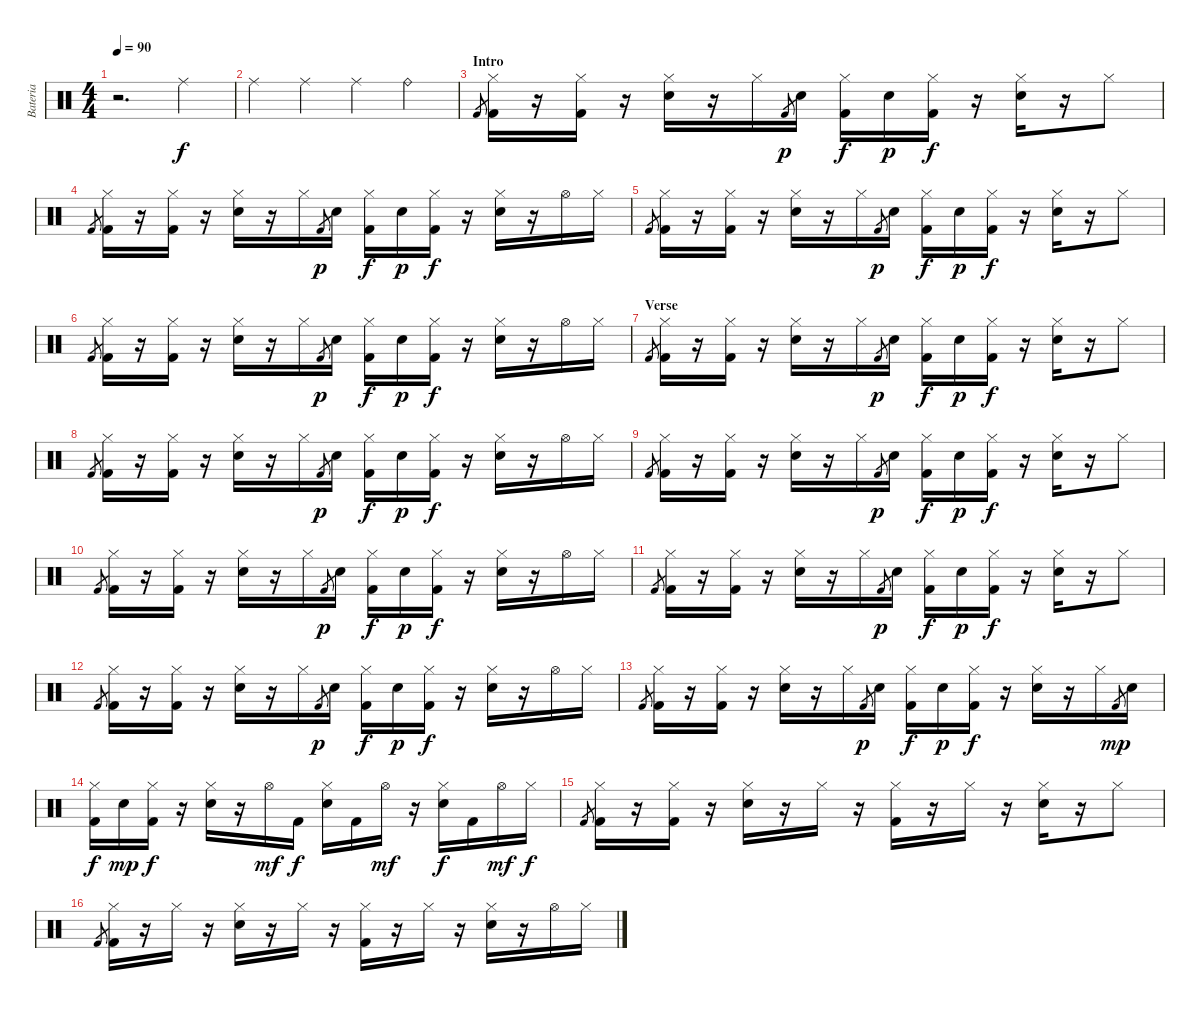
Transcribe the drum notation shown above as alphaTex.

\track ("Bateria" "Bateria") {instrument percussion}
\staff {score}
\articulation defaults
\ts (4 4)
\tempo 90
\clef neutral
\ks c
r.2{d dy f} "Ride (middle)".4 |
"Ride (middle)".4 "Ride (middle)".4 "Ride (middle)".4 "Ride (bell)".4 |
\section ("" "Intro")
"Kick (hit) 2".8{gr} ("Hi-Hat (closed)" "Kick (hit) 2").16 r.16 ("Hi-Hat (closed)" "Kick (hit) 2").16 r.16 ("Hi-Hat (closed)" "Electric Snare (hit)").16 r.16 "Hi-Hat (closed)".16 "Kick (hit) 2".8{gr dy p} "Electric Snare (hit)".16 ("Hi-Hat (closed)" "Kick (hit) 2").16{dy f} "Electric Snare (hit)".16{dy p} ("Hi-Hat (closed)" "Kick (hit) 2").16{dy f} r.16 ("Hi-Hat (closed)" "Electric Snare (hit)").16 r.16 "Hi-Hat (closed)".8 |
"Kick (hit) 2".8{gr} ("Hi-Hat (closed)" "Kick (hit) 2").16 r.16 ("Hi-Hat (closed)" "Kick (hit) 2").16 r.16 ("Hi-Hat (closed)" "Electric Snare (hit)").16 r.16 "Hi-Hat (closed)".16 "Kick (hit) 2".8{gr dy p} "Electric Snare (hit)".16 ("Hi-Hat (closed)" "Kick (hit) 2").16{dy f} "Electric Snare (hit)".16{dy p} ("Hi-Hat (closed)" "Kick (hit) 2").16{dy f} r.16 ("Hi-Hat (closed)" "Electric Snare (hit)").16 r.16 "Hi-Hat (open)".16 "Hi-Hat (closed)".16 |
"Kick (hit) 2".8{gr} ("Hi-Hat (closed)" "Kick (hit) 2").16 r.16 ("Hi-Hat (closed)" "Kick (hit) 2").16 r.16 ("Hi-Hat (closed)" "Electric Snare (hit)").16 r.16 "Hi-Hat (closed)".16 "Kick (hit) 2".8{gr dy p} "Electric Snare (hit)".16 ("Hi-Hat (closed)" "Kick (hit) 2").16{dy f} "Electric Snare (hit)".16{dy p} ("Hi-Hat (closed)" "Kick (hit) 2").16{dy f} r.16 ("Hi-Hat (closed)" "Electric Snare (hit)").16 r.16 "Hi-Hat (closed)".8 |
"Kick (hit) 2".8{gr} ("Hi-Hat (closed)" "Kick (hit) 2").16 r.16 ("Hi-Hat (closed)" "Kick (hit) 2").16 r.16 ("Hi-Hat (closed)" "Electric Snare (hit)").16 r.16 "Hi-Hat (closed)".16 "Kick (hit) 2".8{gr dy p} "Electric Snare (hit)".16 ("Hi-Hat (closed)" "Kick (hit) 2").16{dy f} "Electric Snare (hit)".16{dy p} ("Hi-Hat (closed)" "Kick (hit) 2").16{dy f} r.16 ("Hi-Hat (closed)" "Electric Snare (hit)").16 r.16 "Hi-Hat (open)".16 "Hi-Hat (closed)".16 |
\section ("" "Verse")
"Kick (hit) 2".8{gr} ("Hi-Hat (closed)" "Kick (hit) 2").16 r.16 ("Hi-Hat (closed)" "Kick (hit) 2").16 r.16 ("Hi-Hat (closed)" "Electric Snare (hit)").16 r.16 "Hi-Hat (closed)".16 "Kick (hit) 2".8{gr dy p} "Electric Snare (hit)".16 ("Hi-Hat (closed)" "Kick (hit) 2").16{dy f} "Electric Snare (hit)".16{dy p} ("Hi-Hat (closed)" "Kick (hit) 2").16{dy f} r.16 ("Hi-Hat (closed)" "Electric Snare (hit)").16 r.16 "Hi-Hat (closed)".8 |
"Kick (hit) 2".8{gr} ("Hi-Hat (closed)" "Kick (hit) 2").16 r.16 ("Hi-Hat (closed)" "Kick (hit) 2").16 r.16 ("Hi-Hat (closed)" "Electric Snare (hit)").16 r.16 "Hi-Hat (closed)".16 "Kick (hit) 2".8{gr dy p} "Electric Snare (hit)".16 ("Hi-Hat (closed)" "Kick (hit) 2").16{dy f} "Electric Snare (hit)".16{dy p} ("Hi-Hat (closed)" "Kick (hit) 2").16{dy f} r.16 ("Hi-Hat (closed)" "Electric Snare (hit)").16 r.16 "Hi-Hat (open)".16 "Hi-Hat (closed)".16 |
"Kick (hit) 2".8{gr} ("Hi-Hat (closed)" "Kick (hit) 2").16 r.16 ("Hi-Hat (closed)" "Kick (hit) 2").16 r.16 ("Hi-Hat (closed)" "Electric Snare (hit)").16 r.16 "Hi-Hat (closed)".16 "Kick (hit) 2".8{gr dy p} "Electric Snare (hit)".16 ("Hi-Hat (closed)" "Kick (hit) 2").16{dy f} "Electric Snare (hit)".16{dy p} ("Hi-Hat (closed)" "Kick (hit) 2").16{dy f} r.16 ("Hi-Hat (closed)" "Electric Snare (hit)").16 r.16 "Hi-Hat (closed)".8 |
"Kick (hit) 2".8{gr} ("Hi-Hat (closed)" "Kick (hit) 2").16 r.16 ("Hi-Hat (closed)" "Kick (hit) 2").16 r.16 ("Hi-Hat (closed)" "Electric Snare (hit)").16 r.16 "Hi-Hat (closed)".16 "Kick (hit) 2".8{gr dy p} "Electric Snare (hit)".16 ("Hi-Hat (closed)" "Kick (hit) 2").16{dy f} "Electric Snare (hit)".16{dy p} ("Hi-Hat (closed)" "Kick (hit) 2").16{dy f} r.16 ("Hi-Hat (closed)" "Electric Snare (hit)").16 r.16 "Hi-Hat (open)".16 "Hi-Hat (closed)".16 |
"Kick (hit) 2".8{gr} ("Hi-Hat (closed)" "Kick (hit) 2").16 r.16 ("Hi-Hat (closed)" "Kick (hit) 2").16 r.16 ("Hi-Hat (closed)" "Electric Snare (hit)").16 r.16 "Hi-Hat (closed)".16 "Kick (hit) 2".8{gr dy p} "Electric Snare (hit)".16 ("Hi-Hat (closed)" "Kick (hit) 2").16{dy f} "Electric Snare (hit)".16{dy p} ("Hi-Hat (closed)" "Kick (hit) 2").16{dy f} r.16 ("Hi-Hat (closed)" "Electric Snare (hit)").16 r.16 "Hi-Hat (closed)".8 |
"Kick (hit) 2".8{gr} ("Hi-Hat (closed)" "Kick (hit) 2").16 r.16 ("Hi-Hat (closed)" "Kick (hit) 2").16 r.16 ("Hi-Hat (closed)" "Electric Snare (hit)").16 r.16 "Hi-Hat (closed)".16 "Kick (hit) 2".8{gr dy p} "Electric Snare (hit)".16 ("Hi-Hat (closed)" "Kick (hit) 2").16{dy f} "Electric Snare (hit)".16{dy p} ("Hi-Hat (closed)" "Kick (hit) 2").16{dy f} r.16 ("Hi-Hat (closed)" "Electric Snare (hit)").16 r.16 "Hi-Hat (open)".16 "Hi-Hat (closed)".16 |
"Kick (hit) 2".8{gr} ("Hi-Hat (closed)" "Kick (hit) 2").16 r.16 ("Hi-Hat (closed)" "Kick (hit) 2").16 r.16 ("Hi-Hat (closed)" "Electric Snare (hit)").16 r.16 "Hi-Hat (closed)".16 "Kick (hit) 2".8{gr dy p} "Electric Snare (hit)".16 ("Hi-Hat (closed)" "Kick (hit) 2").16{dy f} "Electric Snare (hit)".16{dy p} ("Hi-Hat (closed)" "Kick (hit) 2").16{dy f} r.16 ("Hi-Hat (closed)" "Electric Snare (hit)").16 r.16 "Hi-Hat (closed)".16 "Kick (hit) 2".8{gr dy mp} "Electric Snare (hit)".16 |
("Hi-Hat (closed)" "Kick (hit) 2").16{dy f} "Electric Snare (hit)".16{dy mp} ("Hi-Hat (closed)" "Kick (hit) 2").16{dy f} r.16 ("Hi-Hat (closed)" "Electric Snare (hit)").16 r.16 "Hi-Hat (open)".16{dy mf} "Kick (hit) 2".16{dy f} ("Hi-Hat (closed)" "Electric Snare (hit)").16 "Kick (hit) 2".16 "Hi-Hat (open)".16{dy mf} r.16 ("Hi-Hat (closed)" "Electric Snare (hit)").16{dy f} "Kick (hit) 2".16 "Hi-Hat (open)".16{dy mf} "Hi-Hat (closed)".16{dy f} |
"Kick (hit) 2".8{gr} ("Hi-Hat (closed)" "Kick (hit) 2").16 r.16 ("Hi-Hat (closed)" "Kick (hit) 2").16 r.16 ("Hi-Hat (closed)" "Electric Snare (hit)").16 r.16 "Hi-Hat (closed)".16 r.16 ("Hi-Hat (closed)" "Kick (hit) 2").16 r.16 "Hi-Hat (closed)".16 r.16 ("Hi-Hat (closed)" "Electric Snare (hit)").16 r.16 "Hi-Hat (closed)".8 |
"Kick (hit) 2".8{gr} ("Hi-Hat (closed)" "Kick (hit) 2").16 r.16 "Hi-Hat (closed)".16 r.16 ("Hi-Hat (closed)" "Electric Snare (hit)").16 r.16 "Hi-Hat (closed)".16 r.16 ("Hi-Hat (closed)" "Kick (hit) 2").16 r.16 "Hi-Hat (closed)".16 r.16 ("Hi-Hat (closed)" "Electric Snare (hit)").16 r.16 "Hi-Hat (open)".16 "Hi-Hat (closed)".16
